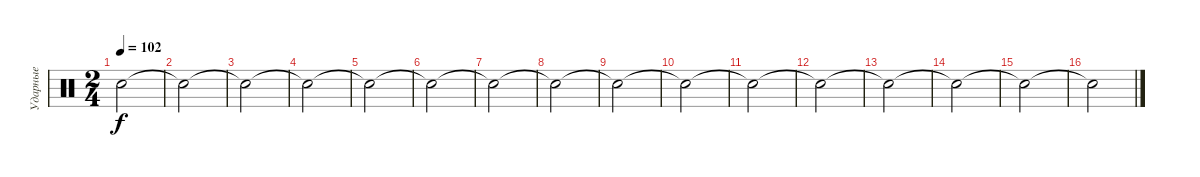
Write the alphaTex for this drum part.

\track ("Ударные" "Ударные") {instrument percussion}
\staff {score}
\articulation defaults
\ts (2 4)
\tempo 102
\clef neutral
\ks c "Snare (hit)"{t}.2{dy f}
|
"Snare (hit)"{t}.2 |
"Snare (hit)"{t}.2 |
"Snare (hit)"{t}.2 |
"Snare (hit)"{t}.2 |
"Snare (hit)"{t}.2 |
"Snare (hit)"{t}.2 |
"Snare (hit)"{t}.2 |
"Snare (hit)"{t}.2 |
"Snare (hit)"{t}.2 |
"Snare (hit)"{t}.2 |
"Snare (hit)"{t}.2 |
"Snare (hit)"{t}.2 |
"Snare (hit)"{t}.2 |
"Snare (hit)"{t}.2 |
"Snare (hit)"{t}.2
